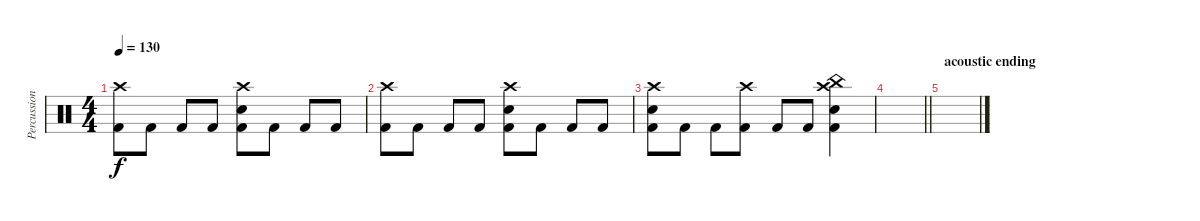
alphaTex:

\track ("Percussion" "Percussion") {instrument percussion}
\staff {score}
\articulation defaults
\ts (4 4)
\tempo 130
\clef neutral
\ks c
("Crash high (hit)" "Kick (hit) 2").8{dy f} "Kick (hit) 2".8 "Kick (hit) 2".8 "Kick (hit) 2".8 ("Crash high (hit)" "Electric Snare (hit)" "Kick (hit) 2").8 "Kick (hit) 2".8 "Kick (hit) 2".8 "Kick (hit) 2".8 |
("Crash high (hit)" "Kick (hit) 2").8 "Kick (hit) 2".8 "Kick (hit) 2".8 "Kick (hit) 2".8 ("Crash high (hit)" "Electric Snare (hit)" "Kick (hit) 2").8 "Kick (hit) 2".8 "Kick (hit) 2".8 "Kick (hit) 2".8 |
("Crash high (hit)" "Electric Snare (hit)" "Kick (hit) 2").8 "Kick (hit) 2".8 "Kick (hit) 2".8 ("Crash high (hit)" "Kick (hit) 2").8 "Kick (hit) 2".8 "Kick (hit) 2".8 ("China (hit)" "Crash high (hit)" "Electric Snare (hit)" "Kick (hit) 2").4 |
\barLineRight lightlight
|
\section ("" "acoustic ending")
